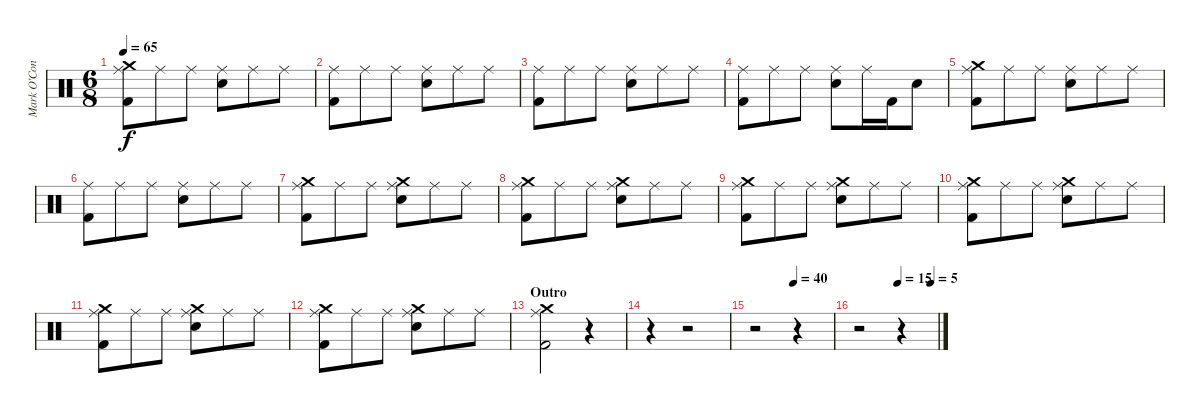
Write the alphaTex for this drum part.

\track ("Mark O'Connell (Drums)" "Mark O'Con") {instrument percussion}
\staff {score}
\articulation defaults
\ts (6 8)
\tempo 65
\clef neutral
\ks c
("Crash medium (hit)" "Ride (middle)" "Kick (hit) 2").8{dy f} "Ride (middle)".8 "Ride (middle)".8 ("Ride (middle)" "Electric Snare (hit)").8 "Ride (middle)".8 "Ride (middle)".8 |
("Ride (middle)" "Kick (hit) 2").8 "Ride (middle)".8 "Ride (middle)".8 ("Ride (middle)" "Electric Snare (hit)").8 "Ride (middle)".8 "Ride (middle)".8 |
("Ride (middle)" "Kick (hit) 2").8 "Ride (middle)".8 "Ride (middle)".8 ("Ride (middle)" "Electric Snare (hit)").8 "Ride (middle)".8 "Ride (middle)".8 |
("Ride (middle)" "Kick (hit) 2").8 "Ride (middle)".8 "Ride (middle)".8 ("Ride (middle)" "Electric Snare (hit)").8 "Ride (middle)".16 "Kick (hit) 2".16 "Electric Snare (hit)".8 |
("Crash medium (hit)" "Ride (middle)" "Kick (hit) 2").8 "Ride (middle)".8 "Ride (middle)".8 ("Ride (middle)" "Electric Snare (hit)").8 "Ride (middle)".8 "Ride (middle)".8 |
("Ride (middle)" "Kick (hit) 2").8 "Ride (middle)".8 "Ride (middle)".8 ("Ride (middle)" "Electric Snare (hit)").8 "Ride (middle)".8 "Ride (middle)".8 |
("Crash medium (hit)" "Ride (middle)" "Kick (hit) 2").8 "Ride (middle)".8 "Ride (middle)".8 ("Crash medium (hit)" "Ride (middle)" "Electric Snare (hit)").8 "Ride (middle)".8 "Ride (middle)".8 |
("Crash medium (hit)" "Ride (middle)" "Kick (hit) 2").8 "Ride (middle)".8 "Ride (middle)".8 ("Crash medium (hit)" "Ride (middle)" "Electric Snare (hit)").8 "Ride (middle)".8 "Ride (middle)".8 |
("Crash medium (hit)" "Ride (middle)" "Kick (hit) 2").8 "Ride (middle)".8 "Ride (middle)".8 ("Crash medium (hit)" "Ride (middle)" "Electric Snare (hit)").8 "Ride (middle)".8 "Ride (middle)".8 |
("Crash medium (hit)" "Ride (middle)" "Kick (hit) 2").8 "Ride (middle)".8 "Ride (middle)".8 ("Crash medium (hit)" "Ride (middle)" "Electric Snare (hit)").8 "Ride (middle)".8 "Ride (middle)".8 |
("Crash medium (hit)" "Ride (middle)" "Kick (hit) 2").8 "Ride (middle)".8 "Ride (middle)".8 ("Crash medium (hit)" "Ride (middle)" "Electric Snare (hit)").8 "Ride (middle)".8 "Ride (middle)".8 |
("Crash medium (hit)" "Ride (middle)" "Kick (hit) 2").8 "Ride (middle)".8 "Ride (middle)".8 ("Crash medium (hit)" "Ride (middle)" "Electric Snare (hit)").8 "Ride (middle)".8 "Ride (middle)".8 |
\section ("" "Outro")
("Crash medium (hit)" "Ride (middle)" "Kick (hit) 2").2 r.4 |
r.4 r.2 |
\tempo (40 0.5)
r.2 r.4 |
\tempo (15 0.5)
\tempo (5 0.9166666666666666)
r.2 r.4
